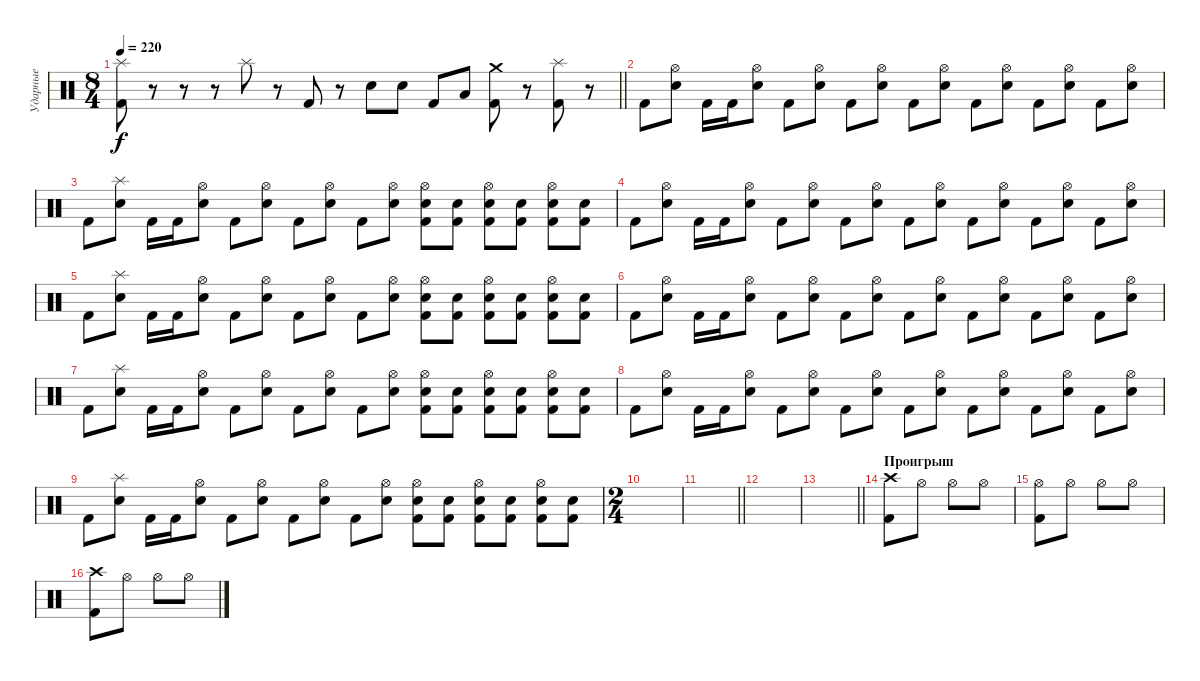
\track ("Ударные" "Ударные") {instrument percussion}
\staff {score}
\articulation defaults
\ts (8 4)
\tempo 220
\clef neutral
\barLineRight lightlight
\ks c
("Kick (hit) 2" "Splash (hit)").8{dy f} r.8 r.8 r.8 "Splash (hit)".8 r.8 "Kick (hit) 2".8 r.8 "Electric Snare (hit)".8 "Electric Snare (hit)".8 "Kick (hit) 2".8 "Low Tom (hit)".8 ("Kick (hit) 2" "Crash medium (hit)").8 r.8 ("Kick (hit) 2" "Splash (hit)").8 r.8 |
"Kick (hit) 2".8 ("Electric Snare (hit)" "Hi-Hat (open)").8 "Kick (hit) 2".16 "Kick (hit) 2".16 ("Electric Snare (hit)" "Hi-Hat (open)").8 "Kick (hit) 2".8 ("Electric Snare (hit)" "Hi-Hat (open)").8 "Kick (hit) 2".8 ("Electric Snare (hit)" "Hi-Hat (open)").8 "Kick (hit) 2".8 ("Electric Snare (hit)" "Hi-Hat (open)").8 "Kick (hit) 2".8 ("Electric Snare (hit)" "Hi-Hat (open)").8 "Kick (hit) 2".8 ("Electric Snare (hit)" "Hi-Hat (open)").8 "Kick (hit) 2".8 ("Electric Snare (hit)" "Hi-Hat (open)").8 |
"Kick (hit) 2".8 ("Electric Snare (hit)" "Splash (hit)").8 "Kick (hit) 2".16 "Kick (hit) 2".16 ("Electric Snare (hit)" "Hi-Hat (open)").8 "Kick (hit) 2".8 ("Electric Snare (hit)" "Hi-Hat (open)").8 "Kick (hit) 2".8 ("Electric Snare (hit)" "Hi-Hat (open)").8 "Kick (hit) 2".8 ("Electric Snare (hit)" "Hi-Hat (open)").8 ("Kick (hit) 2" "Electric Snare (hit)" "Hi-Hat (open)").8 ("Kick (hit) 2" "Electric Snare (hit)").8 ("Kick (hit) 2" "Electric Snare (hit)" "Hi-Hat (open)").8 ("Kick (hit) 2" "Electric Snare (hit)").8 ("Kick (hit) 2" "Electric Snare (hit)" "Hi-Hat (open)").8 ("Kick (hit) 2" "Electric Snare (hit)").8 |
"Kick (hit) 2".8 ("Electric Snare (hit)" "Hi-Hat (open)").8 "Kick (hit) 2".16 "Kick (hit) 2".16 ("Electric Snare (hit)" "Hi-Hat (open)").8 "Kick (hit) 2".8 ("Electric Snare (hit)" "Hi-Hat (open)").8 "Kick (hit) 2".8 ("Electric Snare (hit)" "Hi-Hat (open)").8 "Kick (hit) 2".8 ("Electric Snare (hit)" "Hi-Hat (open)").8 "Kick (hit) 2".8 ("Electric Snare (hit)" "Hi-Hat (open)").8 "Kick (hit) 2".8 ("Electric Snare (hit)" "Hi-Hat (open)").8 "Kick (hit) 2".8 ("Electric Snare (hit)" "Hi-Hat (open)").8 |
"Kick (hit) 2".8 ("Electric Snare (hit)" "Splash (hit)").8 "Kick (hit) 2".16 "Kick (hit) 2".16 ("Electric Snare (hit)" "Hi-Hat (open)").8 "Kick (hit) 2".8 ("Electric Snare (hit)" "Hi-Hat (open)").8 "Kick (hit) 2".8 ("Electric Snare (hit)" "Hi-Hat (open)").8 "Kick (hit) 2".8 ("Electric Snare (hit)" "Hi-Hat (open)").8 ("Kick (hit) 2" "Electric Snare (hit)" "Hi-Hat (open)").8 ("Kick (hit) 2" "Electric Snare (hit)").8 ("Kick (hit) 2" "Electric Snare (hit)" "Hi-Hat (open)").8 ("Kick (hit) 2" "Electric Snare (hit)").8 ("Kick (hit) 2" "Electric Snare (hit)" "Hi-Hat (open)").8 ("Kick (hit) 2" "Electric Snare (hit)").8 |
"Kick (hit) 2".8 ("Electric Snare (hit)" "Hi-Hat (open)").8 "Kick (hit) 2".16 "Kick (hit) 2".16 ("Electric Snare (hit)" "Hi-Hat (open)").8 "Kick (hit) 2".8 ("Electric Snare (hit)" "Hi-Hat (open)").8 "Kick (hit) 2".8 ("Electric Snare (hit)" "Hi-Hat (open)").8 "Kick (hit) 2".8 ("Electric Snare (hit)" "Hi-Hat (open)").8 "Kick (hit) 2".8 ("Electric Snare (hit)" "Hi-Hat (open)").8 "Kick (hit) 2".8 ("Electric Snare (hit)" "Hi-Hat (open)").8 "Kick (hit) 2".8 ("Electric Snare (hit)" "Hi-Hat (open)").8 |
"Kick (hit) 2".8 ("Electric Snare (hit)" "Splash (hit)").8 "Kick (hit) 2".16 "Kick (hit) 2".16 ("Electric Snare (hit)" "Hi-Hat (open)").8 "Kick (hit) 2".8 ("Electric Snare (hit)" "Hi-Hat (open)").8 "Kick (hit) 2".8 ("Electric Snare (hit)" "Hi-Hat (open)").8 "Kick (hit) 2".8 ("Electric Snare (hit)" "Hi-Hat (open)").8 ("Kick (hit) 2" "Electric Snare (hit)" "Hi-Hat (open)").8 ("Kick (hit) 2" "Electric Snare (hit)").8 ("Kick (hit) 2" "Electric Snare (hit)" "Hi-Hat (open)").8 ("Kick (hit) 2" "Electric Snare (hit)").8 ("Kick (hit) 2" "Electric Snare (hit)" "Hi-Hat (open)").8 ("Kick (hit) 2" "Electric Snare (hit)").8 |
"Kick (hit) 2".8 ("Electric Snare (hit)" "Hi-Hat (open)").8 "Kick (hit) 2".16 "Kick (hit) 2".16 ("Electric Snare (hit)" "Hi-Hat (open)").8 "Kick (hit) 2".8 ("Electric Snare (hit)" "Hi-Hat (open)").8 "Kick (hit) 2".8 ("Electric Snare (hit)" "Hi-Hat (open)").8 "Kick (hit) 2".8 ("Electric Snare (hit)" "Hi-Hat (open)").8 "Kick (hit) 2".8 ("Electric Snare (hit)" "Hi-Hat (open)").8 "Kick (hit) 2".8 ("Electric Snare (hit)" "Hi-Hat (open)").8 "Kick (hit) 2".8 ("Electric Snare (hit)" "Hi-Hat (open)").8 |
"Kick (hit) 2".8 ("Electric Snare (hit)" "Splash (hit)").8 "Kick (hit) 2".16 "Kick (hit) 2".16 ("Electric Snare (hit)" "Hi-Hat (open)").8 "Kick (hit) 2".8 ("Electric Snare (hit)" "Hi-Hat (open)").8 "Kick (hit) 2".8 ("Electric Snare (hit)" "Hi-Hat (open)").8 "Kick (hit) 2".8 ("Electric Snare (hit)" "Hi-Hat (open)").8 ("Kick (hit) 2" "Electric Snare (hit)" "Hi-Hat (open)").8 ("Kick (hit) 2" "Electric Snare (hit)").8 ("Kick (hit) 2" "Electric Snare (hit)" "Hi-Hat (open)").8 ("Kick (hit) 2" "Electric Snare (hit)").8 ("Kick (hit) 2" "Electric Snare (hit)" "Hi-Hat (open)").8 ("Kick (hit) 2" "Electric Snare (hit)").8 |
\ts (2 4)
|
\barLineRight lightlight
|
|
\barLineRight lightlight
|
\section ("" "Проигрыш")
("Crash high (hit)" "Kick (hit) 2").8 "Hi-Hat (open)".8 "Hi-Hat (open)".8 "Hi-Hat (open)".8 |
("Hi-Hat (open)" "Kick (hit) 2").8 "Hi-Hat (open)".8 "Hi-Hat (open)".8 "Hi-Hat (open)".8 |
("Crash high (hit)" "Kick (hit) 2").8 "Hi-Hat (open)".8 "Hi-Hat (open)".8 "Hi-Hat (open)".8
